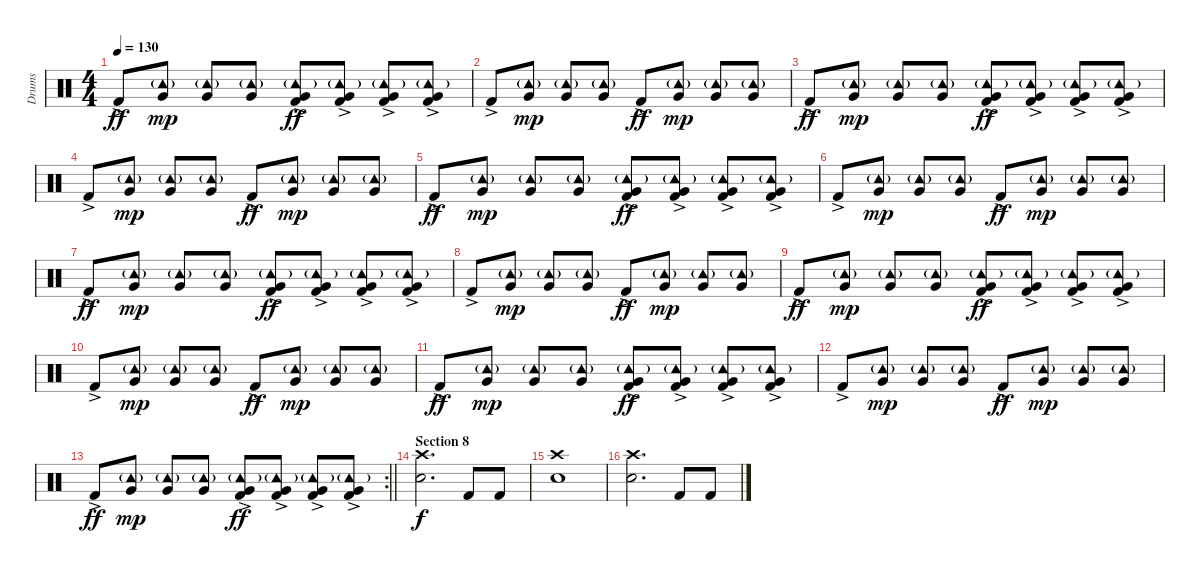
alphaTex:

\track ("Drums" "Drums") {instrument percussion}
\staff {score}
\articulation defaults
\ts (4 4)
\tempo 130
\clef neutral
\ks c "Kick (hit) 2"{ac}.8{dy ff}
("Tambourine (hit)"{g} "Very Low Tom (hit)").8{dy mp} ("Tambourine (hit)"{g} "Very Low Tom (hit)").8 ("Tambourine (hit)"{g} "Very Low Tom (hit)").8 ("Tambourine (hit)"{g} "Very Low Tom (hit)" "Kick (hit) 2"{ac}).8{dy ff} ("Tambourine (hit)"{g} "Very Low Tom (hit)" "Kick (hit) 2"{ac}).8 ("Tambourine (hit)"{g} "Very Low Tom (hit)" "Kick (hit) 2"{ac}).8 ("Tambourine (hit)"{g} "Very Low Tom (hit)" "Kick (hit) 2"{ac}).8 |
"Kick (hit) 2"{ac}.8 ("Tambourine (hit)"{g} "Very Low Tom (hit)").8{dy mp} ("Tambourine (hit)"{g} "Very Low Tom (hit)").8 ("Tambourine (hit)"{g} "Very Low Tom (hit)").8 "Kick (hit) 2"{ac}.8{dy ff} ("Tambourine (hit)"{g} "Very Low Tom (hit)").8{dy mp} ("Tambourine (hit)"{g} "Very Low Tom (hit)").8 ("Tambourine (hit)"{g} "Very Low Tom (hit)").8 |
"Kick (hit) 2"{ac}.8{dy ff} ("Tambourine (hit)"{g} "Very Low Tom (hit)").8{dy mp} ("Tambourine (hit)"{g} "Very Low Tom (hit)").8 ("Tambourine (hit)"{g} "Very Low Tom (hit)").8 ("Tambourine (hit)"{g} "Very Low Tom (hit)" "Kick (hit) 2"{ac}).8{dy ff} ("Tambourine (hit)"{g} "Very Low Tom (hit)" "Kick (hit) 2"{ac}).8 ("Tambourine (hit)"{g} "Very Low Tom (hit)" "Kick (hit) 2"{ac}).8 ("Tambourine (hit)"{g} "Very Low Tom (hit)" "Kick (hit) 2"{ac}).8 |
"Kick (hit) 2"{ac}.8 ("Tambourine (hit)"{g} "Very Low Tom (hit)").8{dy mp} ("Tambourine (hit)"{g} "Very Low Tom (hit)").8 ("Tambourine (hit)"{g} "Very Low Tom (hit)").8 "Kick (hit) 2"{ac}.8{dy ff} ("Tambourine (hit)"{g} "Very Low Tom (hit)").8{dy mp} ("Tambourine (hit)"{g} "Very Low Tom (hit)").8 ("Tambourine (hit)"{g} "Very Low Tom (hit)").8 |
"Kick (hit) 2"{ac}.8{dy ff} ("Tambourine (hit)"{g} "Very Low Tom (hit)").8{dy mp} ("Tambourine (hit)"{g} "Very Low Tom (hit)").8 ("Tambourine (hit)"{g} "Very Low Tom (hit)").8 ("Tambourine (hit)"{g} "Very Low Tom (hit)" "Kick (hit) 2"{ac}).8{dy ff} ("Tambourine (hit)"{g} "Very Low Tom (hit)" "Kick (hit) 2"{ac}).8 ("Tambourine (hit)"{g} "Very Low Tom (hit)" "Kick (hit) 2"{ac}).8 ("Tambourine (hit)"{g} "Very Low Tom (hit)" "Kick (hit) 2"{ac}).8 |
"Kick (hit) 2"{ac}.8 ("Tambourine (hit)"{g} "Very Low Tom (hit)").8{dy mp} ("Tambourine (hit)"{g} "Very Low Tom (hit)").8 ("Tambourine (hit)"{g} "Very Low Tom (hit)").8 "Kick (hit) 2"{ac}.8{dy ff} ("Tambourine (hit)"{g} "Very Low Tom (hit)").8{dy mp} ("Tambourine (hit)"{g} "Very Low Tom (hit)").8 ("Tambourine (hit)"{g} "Very Low Tom (hit)").8 |
"Kick (hit) 2"{ac}.8{dy ff} ("Tambourine (hit)"{g} "Very Low Tom (hit)").8{dy mp} ("Tambourine (hit)"{g} "Very Low Tom (hit)").8 ("Tambourine (hit)"{g} "Very Low Tom (hit)").8 ("Tambourine (hit)"{g} "Very Low Tom (hit)" "Kick (hit) 2"{ac}).8{dy ff} ("Tambourine (hit)"{g} "Very Low Tom (hit)" "Kick (hit) 2"{ac}).8 ("Tambourine (hit)"{g} "Very Low Tom (hit)" "Kick (hit) 2"{ac}).8 ("Tambourine (hit)"{g} "Very Low Tom (hit)" "Kick (hit) 2"{ac}).8 |
"Kick (hit) 2"{ac}.8 ("Tambourine (hit)"{g} "Very Low Tom (hit)").8{dy mp} ("Tambourine (hit)"{g} "Very Low Tom (hit)").8 ("Tambourine (hit)"{g} "Very Low Tom (hit)").8 "Kick (hit) 2"{ac}.8{dy ff} ("Tambourine (hit)"{g} "Very Low Tom (hit)").8{dy mp} ("Tambourine (hit)"{g} "Very Low Tom (hit)").8 ("Tambourine (hit)"{g} "Very Low Tom (hit)").8 |
"Kick (hit) 2"{ac}.8{dy ff} ("Tambourine (hit)"{g} "Very Low Tom (hit)").8{dy mp} ("Tambourine (hit)"{g} "Very Low Tom (hit)").8 ("Tambourine (hit)"{g} "Very Low Tom (hit)").8 ("Tambourine (hit)"{g} "Very Low Tom (hit)" "Kick (hit) 2"{ac}).8{dy ff} ("Tambourine (hit)"{g} "Very Low Tom (hit)" "Kick (hit) 2"{ac}).8 ("Tambourine (hit)"{g} "Very Low Tom (hit)" "Kick (hit) 2"{ac}).8 ("Tambourine (hit)"{g} "Very Low Tom (hit)" "Kick (hit) 2"{ac}).8 |
"Kick (hit) 2"{ac}.8 ("Tambourine (hit)"{g} "Very Low Tom (hit)").8{dy mp} ("Tambourine (hit)"{g} "Very Low Tom (hit)").8 ("Tambourine (hit)"{g} "Very Low Tom (hit)").8 "Kick (hit) 2"{ac}.8{dy ff} ("Tambourine (hit)"{g} "Very Low Tom (hit)").8{dy mp} ("Tambourine (hit)"{g} "Very Low Tom (hit)").8 ("Tambourine (hit)"{g} "Very Low Tom (hit)").8 |
"Kick (hit) 2"{ac}.8{dy ff} ("Tambourine (hit)"{g} "Very Low Tom (hit)").8{dy mp} ("Tambourine (hit)"{g} "Very Low Tom (hit)").8 ("Tambourine (hit)"{g} "Very Low Tom (hit)").8 ("Tambourine (hit)"{g} "Very Low Tom (hit)" "Kick (hit) 2"{ac}).8{dy ff} ("Tambourine (hit)"{g} "Very Low Tom (hit)" "Kick (hit) 2"{ac}).8 ("Tambourine (hit)"{g} "Very Low Tom (hit)" "Kick (hit) 2"{ac}).8 ("Tambourine (hit)"{g} "Very Low Tom (hit)" "Kick (hit) 2"{ac}).8 |
"Kick (hit) 2"{ac}.8 ("Tambourine (hit)"{g} "Very Low Tom (hit)").8{dy mp} ("Tambourine (hit)"{g} "Very Low Tom (hit)").8 ("Tambourine (hit)"{g} "Very Low Tom (hit)").8 "Kick (hit) 2"{ac}.8{dy ff} ("Tambourine (hit)"{g} "Very Low Tom (hit)").8{dy mp} ("Tambourine (hit)"{g} "Very Low Tom (hit)").8 ("Tambourine (hit)"{g} "Very Low Tom (hit)").8 |
\rc 2
\barLineRight lightlight "Kick (hit) 2"{ac}.8{dy ff}
("Tambourine (hit)"{g} "Very Low Tom (hit)").8{dy mp} ("Tambourine (hit)"{g} "Very Low Tom (hit)").8 ("Tambourine (hit)"{g} "Very Low Tom (hit)").8 ("Tambourine (hit)"{g} "Very Low Tom (hit)" "Kick (hit) 2"{ac}).8{dy ff} ("Tambourine (hit)"{g} "Very Low Tom (hit)" "Kick (hit) 2"{ac}).8 ("Tambourine (hit)"{g} "Very Low Tom (hit)" "Kick (hit) 2"{ac}).8 ("Tambourine (hit)"{g} "Very Low Tom (hit)" "Kick (hit) 2"{ac}).8 |
\section ("" "Section 8")
("Crash high (hit)" "Electric Snare (hit)").2{d dy f} "Kick (hit) 2".8 "Kick (hit) 2".8 |
("Crash high (hit)" "Electric Snare (hit)").1 |
("Crash high (hit)" "Electric Snare (hit)").2{d} "Kick (hit) 2".8 "Kick (hit) 2".8
